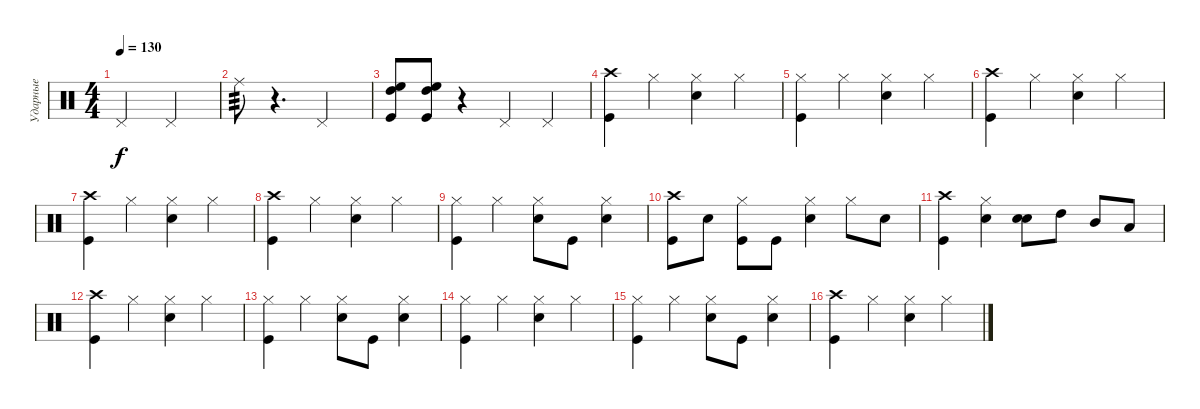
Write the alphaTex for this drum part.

\track ("Ударные" "Ударные") {instrument percussion}
\staff {score}
\articulation defaults
\ts (4 4)
\tempo 130
\clef neutral
\ks c "Pedal Hi-Hat (hit)".2{dy f} "Pedal Hi-Hat (hit)".2
|
"Ride (middle)".8{tp 3} r.4{d} "Pedal Hi-Hat (hit)".2 |
("High Floor Tom (hit)" "High Tom (hit)" "Kick (hit)").8 ("High Floor Tom (hit)" "High Tom (hit)" "Kick (hit)").8 r.4 "Pedal Hi-Hat (hit)".4 "Pedal Hi-Hat (hit)".4 |
("Kick (hit)" "Crash high (hit)").4 "Hi-Hat (closed)".4 ("Snare (hit) 2" "Hi-Hat (closed)").4 "Hi-Hat (closed)".4 |
("Kick (hit)" "Hi-Hat (closed)").4 "Hi-Hat (closed)".4 ("Snare (hit) 2" "Hi-Hat (closed)").4 "Hi-Hat (closed)".4 |
("Kick (hit)" "Crash high (hit)").4 "Hi-Hat (closed)".4 ("Snare (hit) 2" "Hi-Hat (closed)").4 "Hi-Hat (closed)".4 |
("Kick (hit)" "Crash high (hit)").4 "Hi-Hat (closed)".4 ("Snare (hit) 2" "Hi-Hat (closed)").4 "Hi-Hat (closed)".4 |
("Kick (hit)" "Crash high (hit)").4 "Hi-Hat (closed)".4 ("Snare (hit) 2" "Hi-Hat (closed)").4 "Hi-Hat (closed)".4 |
("Kick (hit)" "Hi-Hat (closed)").4 "Hi-Hat (closed)".4 ("Snare (hit) 2" "Hi-Hat (closed)").8 "Kick (hit)".8 ("Snare (hit) 2" "Hi-Hat (closed)").4 |
("Kick (hit)" "Crash high (hit)").8 "Snare (hit) 2".8 ("Kick (hit)" "Hi-Hat (closed)").8 "Kick (hit)".8 ("Snare (hit) 2" "Hi-Hat (closed)").4 "Hi-Hat (closed)".8 "Snare (hit) 2".8 |
("Kick (hit)" "Crash high (hit)").4 ("Snare (hit) 2" "Hi-Hat (closed)").4 ("Snare (hit) 2" "Snare (hit) 2").8 "High Tom (hit)".8 "Mid Tom (hit)".8 "Low Tom (hit)".8 |
("Kick (hit)" "Crash high (hit)").4 "Hi-Hat (closed)".4 ("Snare (hit) 2" "Hi-Hat (closed)").4 "Hi-Hat (closed)".4 |
("Kick (hit)" "Hi-Hat (closed)").4 "Hi-Hat (closed)".4 ("Snare (hit) 2" "Hi-Hat (closed)").8 "Kick (hit)".8 ("Snare (hit) 2" "Hi-Hat (closed)").4 |
("Kick (hit)" "Hi-Hat (closed)").4 "Hi-Hat (closed)".4 ("Snare (hit) 2" "Hi-Hat (closed)").4 "Hi-Hat (closed)".4 |
("Kick (hit)" "Hi-Hat (closed)").4 "Hi-Hat (closed)".4 ("Snare (hit) 2" "Hi-Hat (closed)").8 "Kick (hit)".8 ("Snare (hit) 2" "Hi-Hat (closed)").4 |
("Kick (hit)" "Crash high (hit)").4 "Hi-Hat (closed)".4 ("Snare (hit) 2" "Hi-Hat (closed)").4 "Hi-Hat (closed)".4
